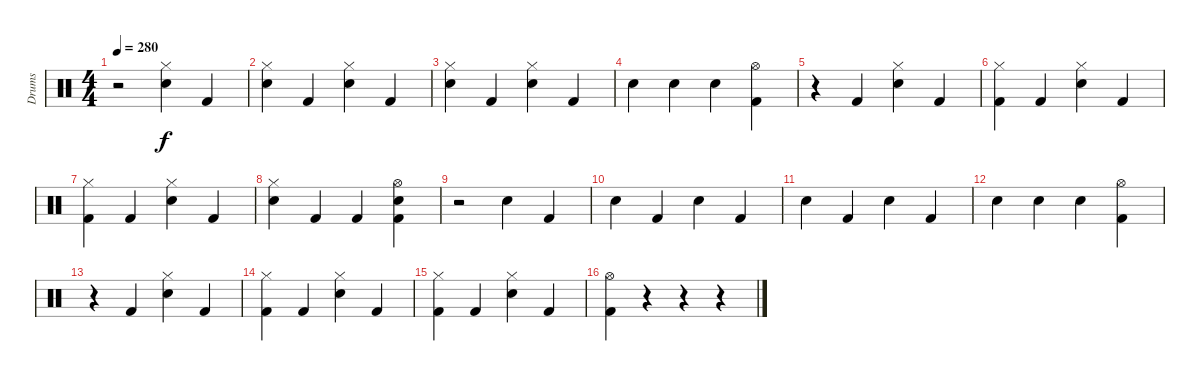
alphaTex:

\track ("Drums" "Drums") {instrument percussion}
\staff {score}
\articulation defaults
\ts (4 4)
\tempo 280
\clef neutral
\ks c
r.2{dy f} ("Hi-Hat (closed)" "Electric Snare (hit)").4 "Kick (hit) 2".4 |
("Hi-Hat (closed)" "Electric Snare (hit)").4 "Kick (hit) 2".4 ("Hi-Hat (closed)" "Electric Snare (hit)").4 "Kick (hit) 2".4 |
("Hi-Hat (closed)" "Electric Snare (hit)").4 "Kick (hit) 2".4 ("Hi-Hat (closed)" "Electric Snare (hit)").4 "Kick (hit) 2".4 |
"Electric Snare (hit)".4 "Electric Snare (hit)".4 "Electric Snare (hit)".4 ("Hi-Hat (open)" "Kick (hit) 2").4 |
r.4 "Kick (hit) 2".4 ("Hi-Hat (closed)" "Electric Snare (hit)").4 "Kick (hit) 2".4 |
("Hi-Hat (closed)" "Kick (hit) 2").4 "Kick (hit) 2".4 ("Hi-Hat (closed)" "Electric Snare (hit)").4 "Kick (hit) 2".4 |
("Hi-Hat (closed)" "Kick (hit) 2").4 "Kick (hit) 2".4 ("Hi-Hat (closed)" "Electric Snare (hit)").4 "Kick (hit) 2".4 |
("Hi-Hat (closed)" "Electric Snare (hit)").4 "Kick (hit) 2".4 "Kick (hit) 2".4 ("Hi-Hat (open)" "Electric Snare (hit)" "Kick (hit) 2").4 |
r.2 "Electric Snare (hit)".4 "Kick (hit) 2".4 |
"Electric Snare (hit)".4 "Kick (hit) 2".4 "Electric Snare (hit)".4 "Kick (hit) 2".4 |
"Electric Snare (hit)".4 "Kick (hit) 2".4 "Electric Snare (hit)".4 "Kick (hit) 2".4 |
"Electric Snare (hit)".4 "Electric Snare (hit)".4 "Electric Snare (hit)".4 ("Hi-Hat (open)" "Kick (hit) 2").4 |
r.4 "Kick (hit) 2".4 ("Hi-Hat (closed)" "Electric Snare (hit)").4 "Kick (hit) 2".4 |
("Hi-Hat (closed)" "Kick (hit) 2").4 "Kick (hit) 2".4 ("Hi-Hat (closed)" "Electric Snare (hit)").4 "Kick (hit) 2".4 |
("Hi-Hat (closed)" "Kick (hit) 2").4 "Kick (hit) 2".4 ("Hi-Hat (closed)" "Electric Snare (hit)").4 "Kick (hit) 2".4 |
("Hi-Hat (open)" "Kick (hit) 2").4 r.4 r.4 r.4
